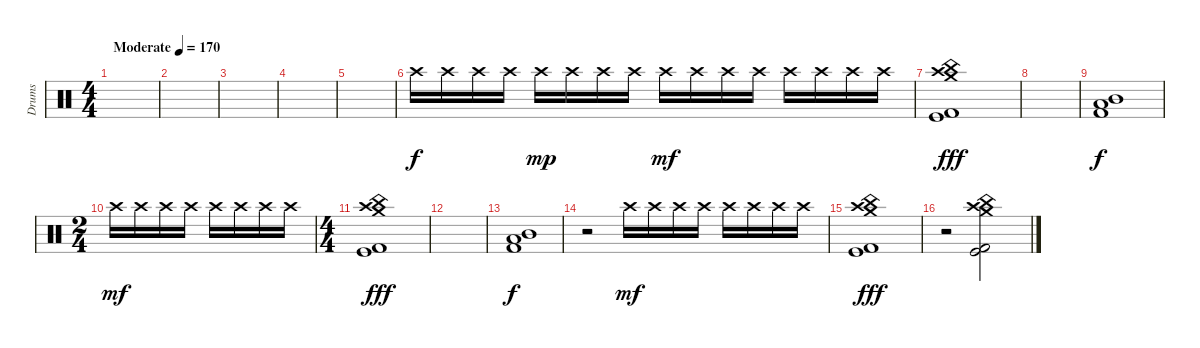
\track ("Drums" "Drums") {instrument percussion}
\staff {score}
\articulation defaults
\ts (4 4)
\tempo (170 "Moderate")
\clef neutral
\ks c
|
|
|
|
|
"Crash high (hit)".16 "Crash high (hit)".16 "Crash high (hit)".16 "Crash high (hit)".16 "Crash high (hit)".16{dy mp} "Crash high (hit)".16 "Crash high (hit)".16 "Crash high (hit)".16 "Crash high (hit)".16{dy mf} "Crash high (hit)".16 "Crash high (hit)".16 "Crash high (hit)".16 "Crash high (hit)".16 "Crash high (hit)".16 "Crash high (hit)".16 "Crash high (hit)".16 |
("Crash medium (hit)" "Kick (hit)" "Kick (hit) 2" "Crash high (hit)" "China (hit)").1{dy fff} |
|
("Low Tom (hit)" "Kick (hit) 2" "Mid Tom (hit)").1{dy f} |
\ts (2 4)
"Crash high (hit)".16{dy mf} "Crash high (hit)".16 "Crash high (hit)".16 "Crash high (hit)".16 "Crash high (hit)".16 "Crash high (hit)".16 "Crash high (hit)".16 "Crash high (hit)".16 |
\ts (4 4)
("Crash medium (hit)" "Kick (hit)" "Kick (hit) 2" "Crash high (hit)" "China (hit)").1{dy fff} |
|
("Low Tom (hit)" "Kick (hit) 2" "Mid Tom (hit)").1{dy f} |
r.2 "Crash high (hit)".16{dy mf} "Crash high (hit)".16 "Crash high (hit)".16 "Crash high (hit)".16 "Crash high (hit)".16 "Crash high (hit)".16 "Crash high (hit)".16 "Crash high (hit)".16 |
("Crash medium (hit)" "Kick (hit)" "Kick (hit) 2" "Crash high (hit)" "China (hit)").1{dy fff} |
r.2 ("Crash medium (hit)" "Kick (hit)" "Kick (hit) 2" "Crash high (hit)" "China (hit)").2
